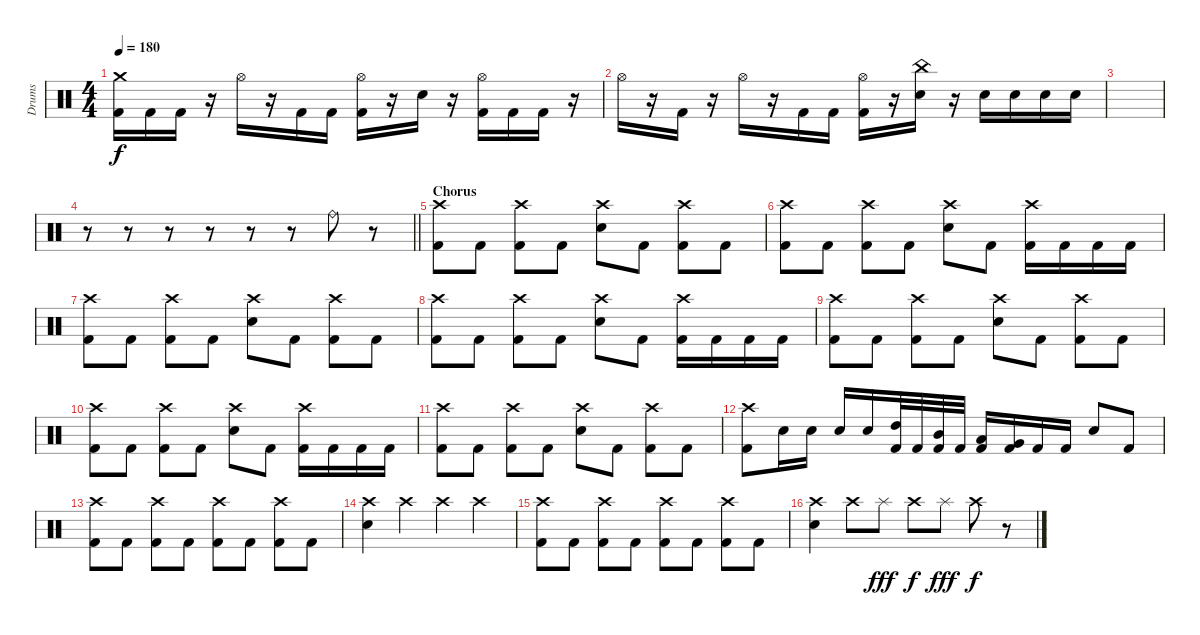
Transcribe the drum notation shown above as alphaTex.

\track ("Drums" "Drums") {instrument percussion}
\staff {score}
\articulation defaults
\ts (4 4)
\tempo 180
\clef neutral
\ks c
("Crash medium (hit)" "Kick (hit) 2").16{dy f} "Kick (hit) 2".16 "Kick (hit) 2".16 r.16 "Hi-Hat (open)".16 r.16 "Kick (hit) 2".16 "Kick (hit) 2".16 ("Hi-Hat (open)" "Kick (hit) 2").16 r.16 "Electric Snare (hit)".16 r.16 ("Hi-Hat (open)" "Kick (hit) 2").16 "Kick (hit) 2".16 "Kick (hit) 2".16 r.16 |
"Hi-Hat (open)".16 r.16 "Kick (hit) 2".16 r.16 "Hi-Hat (open)".16 r.16 "Kick (hit) 2".16 "Kick (hit) 2".16 ("Hi-Hat (open)" "Kick (hit) 2").16 r.16 ("China (hit)" "Electric Snare (hit)").16 r.16 "Electric Snare (hit)".16 "Electric Snare (hit)".16 "Electric Snare (hit)".16 "Electric Snare (hit)".16 |
|
\barLineRight lightlight
r.8 r.8 r.8 r.8 r.8 r.8 "Ride (bell)".8 r.8 |
\section ("" "Chorus")
("Crash high (hit)" "Kick (hit) 2").8 "Kick (hit) 2".8 ("Crash high (hit)" "Kick (hit) 2").8 "Kick (hit) 2".8 ("Crash high (hit)" "Electric Snare (hit)").8 "Kick (hit) 2".8 ("Crash high (hit)" "Kick (hit) 2").8 "Kick (hit) 2".8 |
("Crash high (hit)" "Kick (hit) 2").8 "Kick (hit) 2".8 ("Crash high (hit)" "Kick (hit) 2").8 "Kick (hit) 2".8 ("Crash high (hit)" "Electric Snare (hit)").8 "Kick (hit) 2".8 ("Crash high (hit)" "Kick (hit) 2").16 "Kick (hit) 2".16 "Kick (hit) 2".16 "Kick (hit) 2".16 |
("Crash high (hit)" "Kick (hit) 2").8 "Kick (hit) 2".8 ("Crash high (hit)" "Kick (hit) 2").8 "Kick (hit) 2".8 ("Crash high (hit)" "Electric Snare (hit)").8 "Kick (hit) 2".8 ("Crash high (hit)" "Kick (hit) 2").8 "Kick (hit) 2".8 |
("Crash high (hit)" "Kick (hit) 2").8 "Kick (hit) 2".8 ("Crash high (hit)" "Kick (hit) 2").8 "Kick (hit) 2".8 ("Crash high (hit)" "Electric Snare (hit)").8 "Kick (hit) 2".8 ("Crash high (hit)" "Kick (hit) 2").16 "Kick (hit) 2".16 "Kick (hit) 2".16 "Kick (hit) 2".16 |
("Crash high (hit)" "Kick (hit) 2").8 "Kick (hit) 2".8 ("Crash high (hit)" "Kick (hit) 2").8 "Kick (hit) 2".8 ("Crash high (hit)" "Electric Snare (hit)").8 "Kick (hit) 2".8 ("Crash high (hit)" "Kick (hit) 2").8 "Kick (hit) 2".8 |
("Crash high (hit)" "Kick (hit) 2").8 "Kick (hit) 2".8 ("Crash high (hit)" "Kick (hit) 2").8 "Kick (hit) 2".8 ("Crash high (hit)" "Electric Snare (hit)").8 "Kick (hit) 2".8 ("Crash high (hit)" "Kick (hit) 2").16 "Kick (hit) 2".16 "Kick (hit) 2".16 "Kick (hit) 2".16 |
("Crash high (hit)" "Kick (hit) 2").8 "Kick (hit) 2".8 ("Crash high (hit)" "Kick (hit) 2").8 "Kick (hit) 2".8 ("Crash high (hit)" "Electric Snare (hit)").8 "Kick (hit) 2".8 ("Crash high (hit)" "Kick (hit) 2").8 "Kick (hit) 2".8 |
("Crash high (hit)" "Kick (hit) 2").8 "Electric Snare (hit)".16 "Electric Snare (hit)".16 "Electric Snare (hit)".16 "Electric Snare (hit)".16 ("High Tom (hit)" "Kick (hit) 2").32 "Kick (hit) 2".32 ("Mid Tom (hit)" "Kick (hit) 2").32 "Kick (hit) 2".32 ("Low Tom (hit)" "Kick (hit) 2").16 ("Very Low Tom (hit)" "Kick (hit) 2").16 "Kick (hit) 2".16 "Kick (hit) 2".16 "Electric Snare (hit)".8 "Kick (hit) 2".8 |
("Crash high (hit)" "Kick (hit) 2").8 "Kick (hit) 2".8 ("Crash high (hit)" "Kick (hit) 2").8 "Kick (hit) 2".8 ("Crash high (hit)" "Kick (hit) 2").8 "Kick (hit) 2".8 ("Crash high (hit)" "Kick (hit) 2").8 "Kick (hit) 2".8 |
("Crash high (hit)" "Electric Snare (hit)").4 "Crash high (hit)".4 "Crash high (hit)".4 "Crash high (hit)".4 |
("Crash high (hit)" "Kick (hit) 2").8 "Kick (hit) 2".8 ("Crash high (hit)" "Kick (hit) 2").8 "Kick (hit) 2".8 ("Crash high (hit)" "Kick (hit) 2").8 "Kick (hit) 2".8 ("Crash high (hit)" "Kick (hit) 2").8 "Kick (hit) 2".8 |
("Crash high (hit)" "Electric Snare (hit)").4 "Crash high (hit)".8 "Splash (hit)".8{dy fff} "Crash high (hit)".8{dy f} "Splash (hit)".8{dy fff} "Crash high (hit)".8{dy f} r.8
